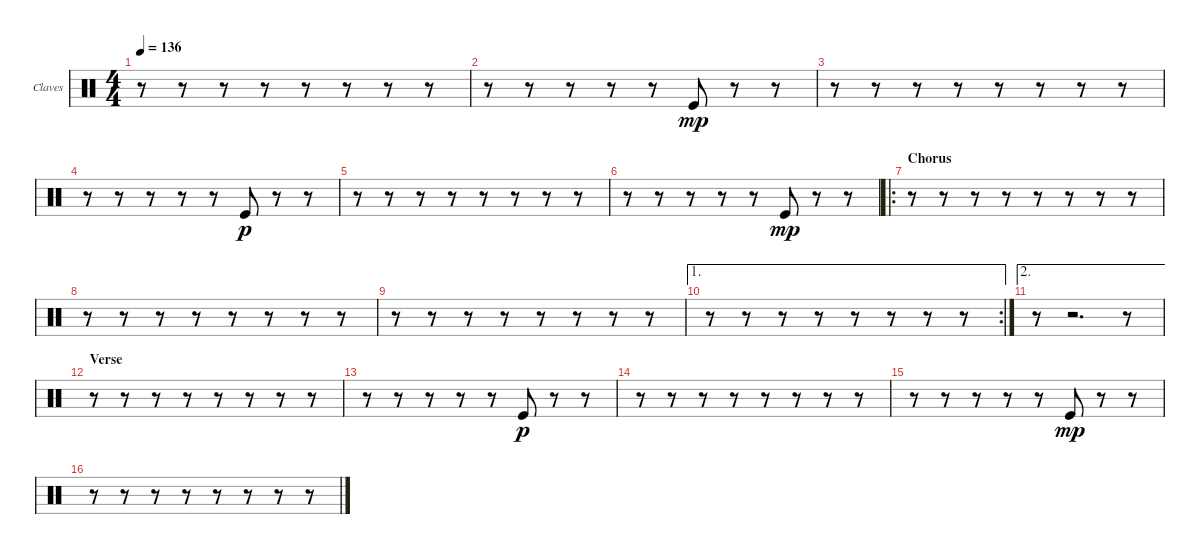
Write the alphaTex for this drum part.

\bracketExtendMode groupsimilarinstruments
\firstSystemTrackNameOrientation horizontal
\otherSystemsTrackNameOrientation horizontal
\track ("Claves" "Claves") {instrument percussion}
\staff {score}
\articulation defaults
\ts (4 4)
\tempo 136
\clef neutral
\ks c
r.8{dy p} r.8 r.8 r.8 r.8 r.8 r.8 r.8 |
r.8 r.8 r.8 r.8 r.8 "Kick (hit)".8{dy mp} r.8 r.8 |
r.8 r.8 r.8 r.8 r.8 r.8 r.8 r.8 |
r.8 r.8 r.8 r.8 r.8 "Kick (hit)".8{dy p} r.8 r.8 |
r.8 r.8 r.8 r.8 r.8 r.8 r.8 r.8 |
r.8 r.8 r.8 r.8 r.8 "Kick (hit)".8{dy mp} r.8 r.8 |
\ro
\section ("" "Chorus")
r.8 r.8 r.8 r.8 r.8 r.8 r.8 r.8 |
r.8 r.8 r.8 r.8 r.8 r.8 r.8 r.8 |
r.8 r.8 r.8 r.8 r.8 r.8 r.8 r.8 |
\ae 1
\rc 2
r.8 r.8 r.8 r.8 r.8 r.8 r.8 r.8 |
\ae 2
r.8 r.2{d} r.8 |
\section ("" "Verse")
r.8 r.8 r.8 r.8 r.8 r.8 r.8 r.8 |
r.8 r.8 r.8 r.8 r.8 "Kick (hit)".8{dy p} r.8 r.8 |
r.8 r.8 r.8 r.8 r.8 r.8 r.8 r.8 |
r.8 r.8 r.8 r.8 r.8 "Kick (hit)".8{dy mp} r.8 r.8 |
r.8 r.8 r.8 r.8 r.8 r.8 r.8 r.8
